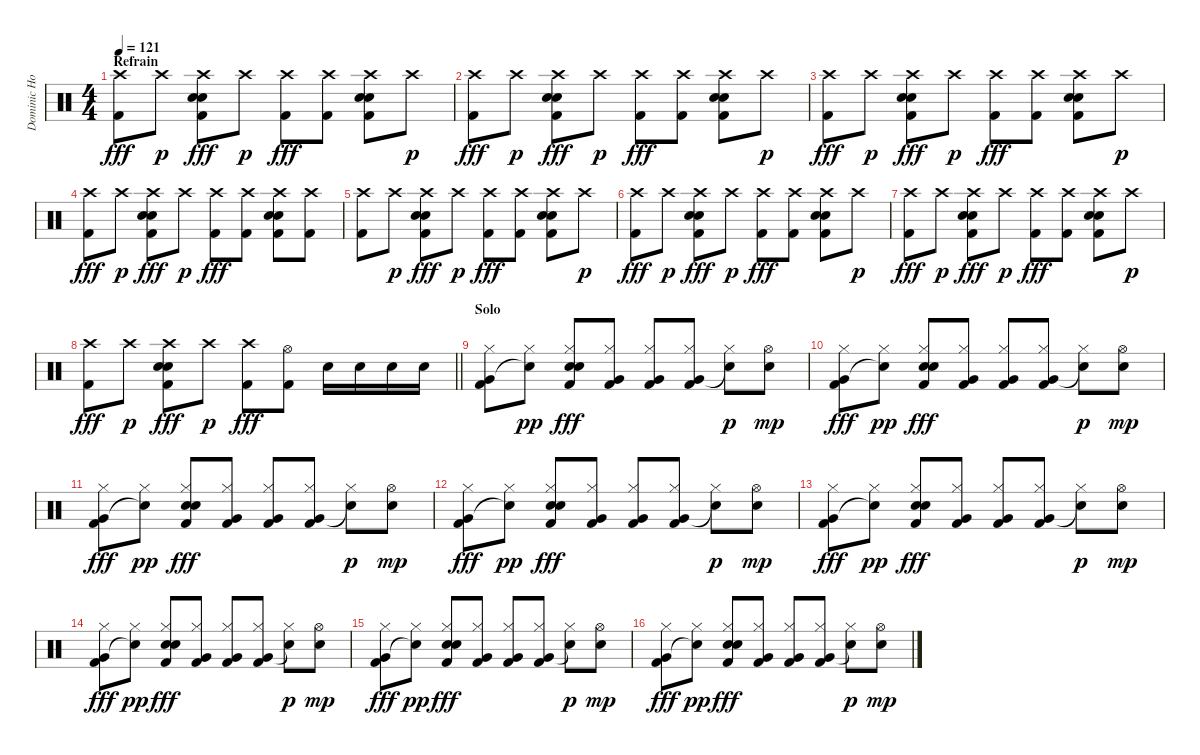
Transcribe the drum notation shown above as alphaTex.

\track ("Dominic Howard" "Dominic Ho") {instrument percussion}
\staff {score}
\articulation defaults
\ts (4 4)
\section ("" "Refrain")
\tempo 121
\clef neutral
\ks c
("Crash high (hit)" "Kick (hit) 2").8{dy fff} "Crash high (hit)".8{dy p} ("Crash high (hit)" "Electric Snare (hit)" "Electric Snare (hit)" "Kick (hit) 2").8{dy fff} "Crash high (hit)".8{dy p} ("Crash high (hit)" "Kick (hit) 2").8{dy fff} ("Crash high (hit)" "Kick (hit) 2").8 ("Crash high (hit)" "Electric Snare (hit)" "Electric Snare (hit)" "Kick (hit) 2").8 "Crash high (hit)".8{dy p} |
("Crash high (hit)" "Kick (hit) 2").8{dy fff} "Crash high (hit)".8{dy p} ("Crash high (hit)" "Electric Snare (hit)" "Electric Snare (hit)" "Kick (hit) 2").8{dy fff} "Crash high (hit)".8{dy p} ("Crash high (hit)" "Kick (hit) 2").8{dy fff} ("Crash high (hit)" "Kick (hit) 2").8 ("Crash high (hit)" "Electric Snare (hit)" "Electric Snare (hit)" "Kick (hit) 2").8 "Crash high (hit)".8{dy p} |
("Crash high (hit)" "Kick (hit) 2").8{dy fff} "Crash high (hit)".8{dy p} ("Crash high (hit)" "Electric Snare (hit)" "Electric Snare (hit)" "Kick (hit) 2").8{dy fff} "Crash high (hit)".8{dy p} ("Crash high (hit)" "Kick (hit) 2").8{dy fff} ("Crash high (hit)" "Kick (hit) 2").8 ("Crash high (hit)" "Electric Snare (hit)" "Electric Snare (hit)" "Kick (hit) 2").8 "Crash high (hit)".8{dy p} |
("Crash high (hit)" "Kick (hit) 2").8{dy fff} "Crash high (hit)".8{dy p} ("Crash high (hit)" "Electric Snare (hit)" "Electric Snare (hit)" "Kick (hit) 2").8{dy fff} "Crash high (hit)".8{dy p} ("Crash high (hit)" "Kick (hit) 2").8{dy fff} ("Crash high (hit)" "Kick (hit) 2").8 ("Crash high (hit)" "Electric Snare (hit)" "Electric Snare (hit)" "Kick (hit) 2").8 ("Crash high (hit)" "Kick (hit) 2").8 |
("Crash high (hit)" "Kick (hit) 2").8 "Crash high (hit)".8{dy p} ("Crash high (hit)" "Electric Snare (hit)" "Electric Snare (hit)" "Kick (hit) 2").8{dy fff} "Crash high (hit)".8{dy p} ("Crash high (hit)" "Kick (hit) 2").8{dy fff} ("Crash high (hit)" "Kick (hit) 2").8 ("Crash high (hit)" "Electric Snare (hit)" "Electric Snare (hit)" "Kick (hit) 2").8 "Crash high (hit)".8{dy p} |
("Crash high (hit)" "Kick (hit) 2").8{dy fff} "Crash high (hit)".8{dy p} ("Crash high (hit)" "Electric Snare (hit)" "Electric Snare (hit)" "Kick (hit) 2").8{dy fff} "Crash high (hit)".8{dy p} ("Crash high (hit)" "Kick (hit) 2").8{dy fff} ("Crash high (hit)" "Kick (hit) 2").8 ("Crash high (hit)" "Electric Snare (hit)" "Electric Snare (hit)" "Kick (hit) 2").8 "Crash high (hit)".8{dy p} |
("Crash high (hit)" "Kick (hit) 2").8{dy fff} "Crash high (hit)".8{dy p} ("Crash high (hit)" "Electric Snare (hit)" "Electric Snare (hit)" "Kick (hit) 2").8{dy fff} "Crash high (hit)".8{dy p} ("Crash high (hit)" "Kick (hit) 2").8{dy fff} ("Crash high (hit)" "Kick (hit) 2").8 ("Crash high (hit)" "Electric Snare (hit)" "Electric Snare (hit)" "Kick (hit) 2").8 "Crash high (hit)".8{dy p} |
\barLineRight lightlight
("Crash high (hit)" "Kick (hit) 2").8{dy fff} "Crash high (hit)".8{dy p} ("Crash high (hit)" "Electric Snare (hit)" "Electric Snare (hit)" "Kick (hit) 2").8{dy fff} "Crash high (hit)".8{dy p} ("Crash high (hit)" "Kick (hit) 2").8{dy fff} ("Hi-Hat (open)" "Kick (hit) 2").8 "Electric Snare (hit)".16 "Electric Snare (hit)".16 "Electric Snare (hit)".16 "Electric Snare (hit)".16 |
\section ("" "Solo")
("Hi-Hat (closed)" "Very Low Tom (hit)" "Kick (hit) 2").8 ("Hi-Hat (closed)" "Snare (hit)"{t}).8{dy pp} ("Hi-Hat (closed)" "Electric Snare (hit)" "Hand Clap (hit)" "Kick (hit) 2").8{dy fff} ("Hi-Hat (closed)" "Very Low Tom (hit)" "Kick (hit) 2").8 ("Hi-Hat (closed)" "Very Low Tom (hit)" "Kick (hit) 2").8 ("Hi-Hat (closed)" "Very Low Tom (hit)" "Kick (hit) 2").8 ("Hi-Hat (closed)" "Snare (hit)"{t}).8{dy p} ("Hi-Hat (open)" "Electric Snare (hit)").8{dy mp} |
("Hi-Hat (closed)" "Very Low Tom (hit)" "Kick (hit) 2").8{dy fff} ("Hi-Hat (closed)" "Snare (hit)"{t}).8{dy pp} ("Hi-Hat (closed)" "Electric Snare (hit)" "Hand Clap (hit)" "Kick (hit) 2").8{dy fff} ("Hi-Hat (closed)" "Very Low Tom (hit)" "Kick (hit) 2").8 ("Hi-Hat (closed)" "Very Low Tom (hit)" "Kick (hit) 2").8 ("Hi-Hat (closed)" "Very Low Tom (hit)" "Kick (hit) 2").8 ("Hi-Hat (closed)" "Snare (hit)"{t}).8{dy p} ("Hi-Hat (open)" "Electric Snare (hit)").8{dy mp} |
("Hi-Hat (closed)" "Very Low Tom (hit)" "Kick (hit) 2").8{dy fff} ("Hi-Hat (closed)" "Snare (hit)"{t}).8{dy pp} ("Hi-Hat (closed)" "Electric Snare (hit)" "Hand Clap (hit)" "Kick (hit) 2").8{dy fff} ("Hi-Hat (closed)" "Very Low Tom (hit)" "Kick (hit) 2").8 ("Hi-Hat (closed)" "Very Low Tom (hit)" "Kick (hit) 2").8 ("Hi-Hat (closed)" "Very Low Tom (hit)" "Kick (hit) 2").8 ("Hi-Hat (closed)" "Snare (hit)"{t}).8{dy p} ("Hi-Hat (open)" "Electric Snare (hit)").8{dy mp} |
("Hi-Hat (closed)" "Very Low Tom (hit)" "Kick (hit) 2").8{dy fff} ("Hi-Hat (closed)" "Snare (hit)"{t}).8{dy pp} ("Hi-Hat (closed)" "Electric Snare (hit)" "Hand Clap (hit)" "Kick (hit) 2").8{dy fff} ("Hi-Hat (closed)" "Very Low Tom (hit)" "Kick (hit) 2").8 ("Hi-Hat (closed)" "Very Low Tom (hit)" "Kick (hit) 2").8 ("Hi-Hat (closed)" "Very Low Tom (hit)" "Kick (hit) 2").8 ("Hi-Hat (closed)" "Snare (hit)"{t}).8{dy p} ("Hi-Hat (open)" "Electric Snare (hit)").8{dy mp} |
("Hi-Hat (closed)" "Very Low Tom (hit)" "Kick (hit) 2").8{dy fff} ("Hi-Hat (closed)" "Snare (hit)"{t}).8{dy pp} ("Hi-Hat (closed)" "Electric Snare (hit)" "Hand Clap (hit)" "Kick (hit) 2").8{dy fff} ("Hi-Hat (closed)" "Very Low Tom (hit)" "Kick (hit) 2").8 ("Hi-Hat (closed)" "Very Low Tom (hit)" "Kick (hit) 2").8 ("Hi-Hat (closed)" "Very Low Tom (hit)" "Kick (hit) 2").8 ("Hi-Hat (closed)" "Snare (hit)"{t}).8{dy p} ("Hi-Hat (open)" "Electric Snare (hit)").8{dy mp} |
("Hi-Hat (closed)" "Very Low Tom (hit)" "Kick (hit) 2").8{dy fff} ("Hi-Hat (closed)" "Snare (hit)"{t}).8{dy pp} ("Hi-Hat (closed)" "Electric Snare (hit)" "Hand Clap (hit)" "Kick (hit) 2").8{dy fff} ("Hi-Hat (closed)" "Very Low Tom (hit)" "Kick (hit) 2").8 ("Hi-Hat (closed)" "Very Low Tom (hit)" "Kick (hit) 2").8 ("Hi-Hat (closed)" "Very Low Tom (hit)" "Kick (hit) 2").8 ("Hi-Hat (closed)" "Snare (hit)"{t}).8{dy p} ("Hi-Hat (open)" "Electric Snare (hit)").8{dy mp} |
("Hi-Hat (closed)" "Very Low Tom (hit)" "Kick (hit) 2").8{dy fff} ("Hi-Hat (closed)" "Snare (hit)"{t}).8{dy pp} ("Hi-Hat (closed)" "Electric Snare (hit)" "Hand Clap (hit)" "Kick (hit) 2").8{dy fff} ("Hi-Hat (closed)" "Very Low Tom (hit)" "Kick (hit) 2").8 ("Hi-Hat (closed)" "Very Low Tom (hit)" "Kick (hit) 2").8 ("Hi-Hat (closed)" "Very Low Tom (hit)" "Kick (hit) 2").8 ("Hi-Hat (closed)" "Snare (hit)"{t}).8{dy p} ("Hi-Hat (open)" "Electric Snare (hit)").8{dy mp} |
("Hi-Hat (closed)" "Very Low Tom (hit)" "Kick (hit) 2").8{dy fff} ("Hi-Hat (closed)" "Snare (hit)"{t}).8{dy pp} ("Hi-Hat (closed)" "Electric Snare (hit)" "Hand Clap (hit)" "Kick (hit) 2").8{dy fff} ("Hi-Hat (closed)" "Very Low Tom (hit)" "Kick (hit) 2").8 ("Hi-Hat (closed)" "Very Low Tom (hit)" "Kick (hit) 2").8 ("Hi-Hat (closed)" "Very Low Tom (hit)" "Kick (hit) 2").8 ("Hi-Hat (closed)" "Snare (hit)"{t}).8{dy p} ("Hi-Hat (open)" "Electric Snare (hit)").8{dy mp}
